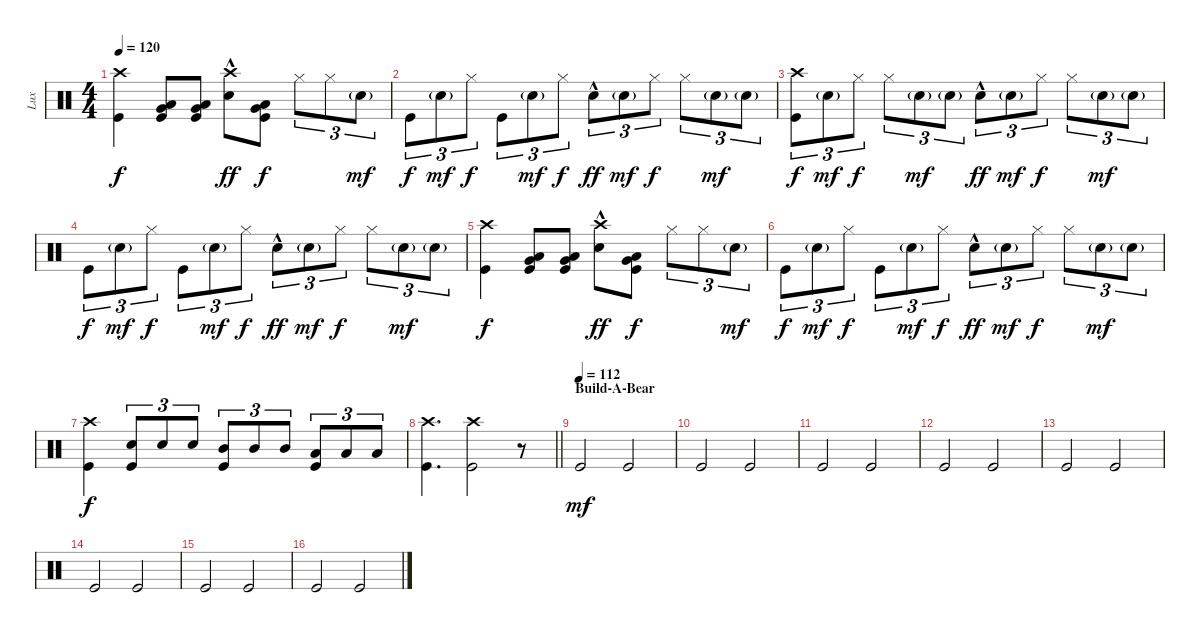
\track ("Lux" "Lux") {instrument percussion bank 32}
\staff {score}
\articulation defaults
\ts (4 4)
\tempo 120
\clef neutral
\ks c
("Crash high (hit)" "Kick (hit)").4{dy f} ("Low Tom (hit)" "Very Low Tom (hit)" "Kick (hit)").8 ("Low Tom (hit)" "Very Low Tom (hit)" "Kick (hit)").8 ("Crash high (hit)" "Snare (hit) 2"{hac}).8{dy ff} ("Low Tom (hit)" "Very Low Tom (hit)" "Kick (hit)").8{dy f} "Hi-Hat (closed)".8{tu (3 2)} "Hi-Hat (closed)".8{tu (3 2)} "Snare (hit) 2"{g}.8{tu (3 2) dy mf} |
"Kick (hit)".8{tu (3 2) dy f} "Snare (hit) 2"{g}.8{tu (3 2) dy mf} "Hi-Hat (closed)".8{tu (3 2) dy f} "Kick (hit)".8{tu (3 2)} "Snare (hit) 2"{g}.8{tu (3 2) dy mf} "Hi-Hat (closed)".8{tu (3 2) dy f} "Snare (hit) 2"{hac}.8{tu (3 2) dy ff} "Snare (hit) 2"{g}.8{tu (3 2) dy mf} "Hi-Hat (closed)".8{tu (3 2) dy f} "Hi-Hat (closed)".8{tu (3 2)} "Snare (hit) 2"{g}.8{tu (3 2) dy mf} "Snare (hit) 2"{g}.8{tu (3 2)} |
("Crash high (hit)" "Kick (hit)").8{tu (3 2) dy f} "Snare (hit) 2"{g}.8{tu (3 2) dy mf} "Hi-Hat (closed)".8{tu (3 2) dy f} "Hi-Hat (closed)".8{tu (3 2)} "Snare (hit) 2"{g}.8{tu (3 2) dy mf} "Snare (hit) 2"{g}.8{tu (3 2)} "Snare (hit) 2"{hac}.8{tu (3 2) dy ff} "Snare (hit) 2"{g}.8{tu (3 2) dy mf} "Hi-Hat (closed)".8{tu (3 2) dy f} "Hi-Hat (closed)".8{tu (3 2)} "Snare (hit) 2"{g}.8{tu (3 2) dy mf} "Snare (hit) 2"{g}.8{tu (3 2)} |
"Kick (hit)".8{tu (3 2) dy f} "Snare (hit) 2"{g}.8{tu (3 2) dy mf} "Hi-Hat (closed)".8{tu (3 2) dy f} "Kick (hit)".8{tu (3 2)} "Snare (hit) 2"{g}.8{tu (3 2) dy mf} "Hi-Hat (closed)".8{tu (3 2) dy f} "Snare (hit) 2"{hac}.8{tu (3 2) dy ff} "Snare (hit) 2"{g}.8{tu (3 2) dy mf} "Hi-Hat (closed)".8{tu (3 2) dy f} "Hi-Hat (closed)".8{tu (3 2)} "Snare (hit) 2"{g}.8{tu (3 2) dy mf} "Snare (hit) 2"{g}.8{tu (3 2)} |
("Crash high (hit)" "Kick (hit)").4{dy f} ("Low Tom (hit)" "Very Low Tom (hit)" "Kick (hit)").8 ("Low Tom (hit)" "Very Low Tom (hit)" "Kick (hit)").8 ("Crash high (hit)" "Snare (hit) 2"{hac}).8{dy ff} ("Low Tom (hit)" "Very Low Tom (hit)" "Kick (hit)").8{dy f} "Hi-Hat (closed)".8{tu (3 2)} "Hi-Hat (closed)".8{tu (3 2)} "Snare (hit) 2"{g}.8{tu (3 2) dy mf} |
"Kick (hit)".8{tu (3 2) dy f} "Snare (hit) 2"{g}.8{tu (3 2) dy mf} "Hi-Hat (closed)".8{tu (3 2) dy f} "Kick (hit)".8{tu (3 2)} "Snare (hit) 2"{g}.8{tu (3 2) dy mf} "Hi-Hat (closed)".8{tu (3 2) dy f} "Snare (hit) 2"{hac}.8{tu (3 2) dy ff} "Snare (hit) 2"{g}.8{tu (3 2) dy mf} "Hi-Hat (closed)".8{tu (3 2) dy f} "Hi-Hat (closed)".8{tu (3 2)} "Snare (hit) 2"{g}.8{tu (3 2) dy mf} "Snare (hit) 2"{g}.8{tu (3 2)} |
("Crash high (hit)" "Kick (hit)").4{dy f} ("Snare (hit) 2" "Kick (hit)").8{tu (3 2)} "Snare (hit) 2".8{tu (3 2)} "Snare (hit) 2".8{tu (3 2)} ("Mid Tom (hit)" "Kick (hit)").8{tu (3 2)} "Mid Tom (hit)".8{tu (3 2)} "Mid Tom (hit)".8{tu (3 2)} ("Low Tom (hit)" "Kick (hit)").8{tu (3 2)} "Low Tom (hit)".8{tu (3 2)} "Low Tom (hit)".8{tu (3 2)} |
\barLineRight lightlight
("Crash high (hit)" "Kick (hit)").4{d} ("Crash high (hit)" "Kick (hit)").2 r.8 |
\section ("" "Build-A-Bear")
\tempo (112)
"Kick (hit)".2{dy mf} "Kick (hit)".2 |
"Kick (hit)".2 "Kick (hit)".2 |
"Kick (hit)".2 "Kick (hit)".2 |
"Kick (hit)".2 "Kick (hit)".2 |
"Kick (hit)".2 "Kick (hit)".2 |
"Kick (hit)".2 "Kick (hit)".2 |
"Kick (hit)".2 "Kick (hit)".2 |
"Kick (hit)".2 "Kick (hit)".2
